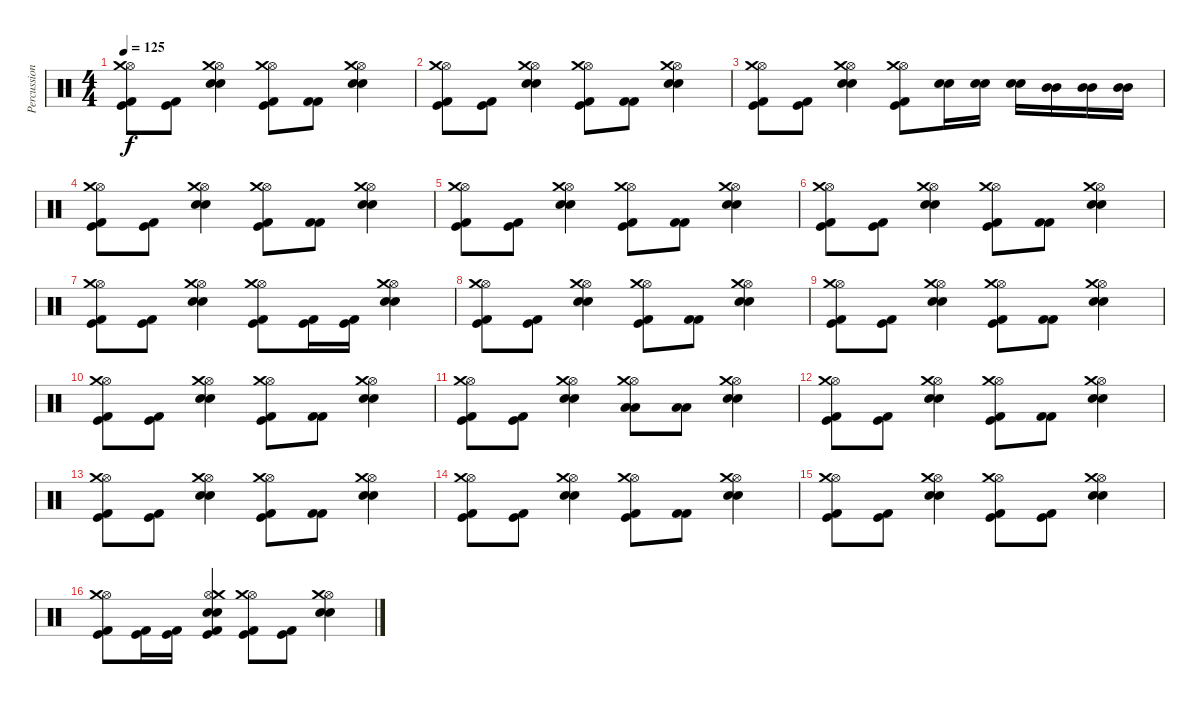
\track ("Percussions" "Percussion") {instrument percussion}
\staff {score}
\articulation defaults
\ts (4 4)
\tempo 125
\clef neutral
\ks c
("Kick (hit)" "Kick (hit) 2" "Hi-Hat (open)" "Crash medium (hit)").8{dy f} ("Kick (hit)" "Kick (hit) 2").8 ("Snare (hit) 2" "Snare (hit) 2" "Hi-Hat (open)" "Crash medium (hit)").4 ("Kick (hit)" "Kick (hit) 2" "Hi-Hat (open)" "Crash medium (hit)").8 ("Kick (hit) 2" "Kick (hit) 2").8 ("Snare (hit) 2" "Snare (hit) 2" "Hi-Hat (open)" "Crash medium (hit)").4 |
("Kick (hit)" "Kick (hit) 2" "Hi-Hat (open)" "Crash medium (hit)").8 ("Kick (hit)" "Kick (hit) 2").8 ("Snare (hit) 2" "Snare (hit) 2" "Hi-Hat (open)" "Crash medium (hit)").4 ("Kick (hit)" "Kick (hit) 2" "Hi-Hat (open)" "Crash medium (hit)").8 ("Kick (hit) 2" "Kick (hit) 2").8 ("Snare (hit) 2" "Snare (hit) 2" "Hi-Hat (open)" "Crash medium (hit)").4 |
("Kick (hit)" "Kick (hit) 2" "Hi-Hat (open)" "Crash medium (hit)").8 ("Kick (hit)" "Kick (hit) 2").8 ("Snare (hit) 2" "Snare (hit) 2" "Hi-Hat (open)" "Crash medium (hit)").4 ("Kick (hit)" "Kick (hit) 2" "Hi-Hat (open)" "Crash medium (hit)").8 ("Snare (hit) 2" "Snare (hit) 2").16 ("Snare (hit) 2" "Snare (hit) 2").16 ("Snare (hit) 2" "Snare (hit) 2").16 ("Mid Tom (hit)" "Mid Tom (hit)").16 ("Mid Tom (hit)" "Mid Tom (hit)").16 ("Mid Tom (hit)" "Mid Tom (hit)").16 |
("Kick (hit)" "Kick (hit) 2" "Hi-Hat (open)" "Crash medium (hit)").8 ("Kick (hit)" "Kick (hit) 2").8 ("Snare (hit) 2" "Snare (hit) 2" "Hi-Hat (open)" "Crash medium (hit)").4 ("Kick (hit)" "Kick (hit) 2" "Hi-Hat (open)" "Crash medium (hit)").8 ("Kick (hit) 2" "Kick (hit) 2").8 ("Snare (hit) 2" "Snare (hit) 2" "Hi-Hat (open)" "Crash medium (hit)").4 |
("Kick (hit)" "Kick (hit) 2" "Hi-Hat (open)" "Crash medium (hit)").8 ("Kick (hit)" "Kick (hit) 2").8 ("Snare (hit) 2" "Snare (hit) 2" "Hi-Hat (open)" "Crash medium (hit)").4 ("Kick (hit)" "Kick (hit) 2" "Hi-Hat (open)" "Crash medium (hit)").8 ("Kick (hit) 2" "Kick (hit) 2").8 ("Snare (hit) 2" "Snare (hit) 2" "Hi-Hat (open)" "Crash medium (hit)").4 |
("Kick (hit)" "Kick (hit) 2" "Hi-Hat (open)" "Crash medium (hit)").8 ("Kick (hit)" "Kick (hit) 2").8 ("Snare (hit) 2" "Snare (hit) 2" "Hi-Hat (open)" "Crash medium (hit)").4 ("Kick (hit)" "Kick (hit) 2" "Hi-Hat (open)" "Crash medium (hit)").8 ("Kick (hit) 2" "Kick (hit) 2").8 ("Snare (hit) 2" "Snare (hit) 2" "Hi-Hat (open)" "Crash medium (hit)").4 |
("Kick (hit)" "Kick (hit) 2" "Hi-Hat (open)" "Crash medium (hit)").8 ("Kick (hit)" "Kick (hit) 2").8 ("Snare (hit) 2" "Snare (hit) 2" "Hi-Hat (open)" "Crash medium (hit)").4 ("Kick (hit)" "Kick (hit) 2" "Hi-Hat (open)" "Crash medium (hit)").8 ("Kick (hit)" "Kick (hit) 2").16 ("Kick (hit)" "Kick (hit) 2").16 ("Snare (hit) 2" "Snare (hit) 2" "Hi-Hat (open)" "Crash medium (hit)").4 |
("Kick (hit)" "Kick (hit) 2" "Hi-Hat (open)" "Crash medium (hit)").8 ("Kick (hit)" "Kick (hit) 2").8 ("Snare (hit) 2" "Snare (hit) 2" "Hi-Hat (open)" "Crash medium (hit)").4 ("Kick (hit)" "Kick (hit) 2" "Hi-Hat (open)" "Crash medium (hit)").8 ("Kick (hit) 2" "Kick (hit) 2").8 ("Snare (hit) 2" "Snare (hit) 2" "Hi-Hat (open)" "Crash medium (hit)").4 |
("Kick (hit)" "Kick (hit) 2" "Hi-Hat (open)" "Crash medium (hit)").8 ("Kick (hit)" "Kick (hit) 2").8 ("Snare (hit) 2" "Snare (hit) 2" "Hi-Hat (open)" "Crash medium (hit)").4 ("Kick (hit)" "Kick (hit) 2" "Hi-Hat (open)" "Crash medium (hit)").8 ("Kick (hit) 2" "Kick (hit) 2").8 ("Snare (hit) 2" "Snare (hit) 2" "Hi-Hat (open)" "Crash medium (hit)").4 |
("Kick (hit)" "Kick (hit) 2" "Hi-Hat (open)" "Crash medium (hit)").8 ("Kick (hit)" "Kick (hit) 2").8 ("Snare (hit) 2" "Snare (hit) 2" "Hi-Hat (open)" "Crash medium (hit)").4 ("Kick (hit)" "Kick (hit) 2" "Hi-Hat (open)" "Crash medium (hit)").8 ("Kick (hit) 2" "Kick (hit) 2").8 ("Snare (hit) 2" "Snare (hit) 2" "Hi-Hat (open)" "Crash medium (hit)").4 |
("Kick (hit)" "Kick (hit) 2" "Hi-Hat (open)" "Crash medium (hit)").8 ("Kick (hit)" "Kick (hit) 2").8 ("Snare (hit) 2" "Snare (hit) 2" "Hi-Hat (open)" "Crash medium (hit)").4 ("Low Floor Tom (hit)" "Low Floor Tom (hit)" "Hi-Hat (open)" "Crash medium (hit)").8 ("Low Floor Tom (hit)" "Low Floor Tom (hit)").8 ("Snare (hit) 2" "Snare (hit) 2" "Hi-Hat (open)" "Crash medium (hit)").4 |
("Kick (hit)" "Kick (hit) 2" "Hi-Hat (open)" "Crash medium (hit)").8 ("Kick (hit)" "Kick (hit) 2").8 ("Snare (hit) 2" "Snare (hit) 2" "Hi-Hat (open)" "Crash medium (hit)").4 ("Kick (hit)" "Kick (hit) 2" "Hi-Hat (open)" "Crash medium (hit)").8 ("Kick (hit) 2" "Kick (hit) 2").8 ("Snare (hit) 2" "Snare (hit) 2" "Hi-Hat (open)" "Crash medium (hit)").4 |
("Kick (hit)" "Kick (hit) 2" "Hi-Hat (open)" "Crash medium (hit)").8 ("Kick (hit)" "Kick (hit) 2").8 ("Snare (hit) 2" "Snare (hit) 2" "Hi-Hat (open)" "Crash medium (hit)").4 ("Kick (hit)" "Kick (hit) 2" "Hi-Hat (open)" "Crash medium (hit)").8 ("Kick (hit) 2" "Kick (hit) 2").8 ("Snare (hit) 2" "Snare (hit) 2" "Hi-Hat (open)" "Crash medium (hit)").4 |
("Kick (hit)" "Kick (hit) 2" "Hi-Hat (open)" "Crash medium (hit)").8 ("Kick (hit)" "Kick (hit) 2").8 ("Snare (hit) 2" "Snare (hit) 2" "Hi-Hat (open)" "Crash medium (hit)").4 ("Kick (hit)" "Kick (hit) 2" "Hi-Hat (open)" "Crash medium (hit)").8 ("Kick (hit) 2" "Kick (hit) 2").8 ("Snare (hit) 2" "Snare (hit) 2" "Hi-Hat (open)" "Crash medium (hit)").4 |
("Kick (hit)" "Kick (hit) 2" "Hi-Hat (open)" "Crash medium (hit)").8 ("Kick (hit)" "Kick (hit) 2").8 ("Snare (hit) 2" "Snare (hit) 2" "Hi-Hat (open)" "Crash medium (hit)").4 ("Kick (hit)" "Kick (hit) 2" "Hi-Hat (open)" "Crash medium (hit)").8 ("Kick (hit)" "Kick (hit) 2").8 ("Snare (hit) 2" "Snare (hit) 2" "Hi-Hat (open)" "Crash medium (hit)").4 |
("Kick (hit)" "Kick (hit) 2" "Hi-Hat (open)" "Crash medium (hit)").8 ("Kick (hit)" "Kick (hit) 2").16 ("Kick (hit)" "Kick (hit) 2").16 ("Snare (hit) 2" "Snare (hit) 2" "Kick (hit)" "Kick (hit) 2" "Hi-Hat (open)" "Crash medium (hit)").4 ("Kick (hit)" "Kick (hit) 2" "Hi-Hat (open)" "Crash medium (hit)").8 ("Kick (hit)" "Kick (hit) 2").8 ("Snare (hit) 2" "Snare (hit) 2" "Hi-Hat (open)" "Crash medium (hit)").4
